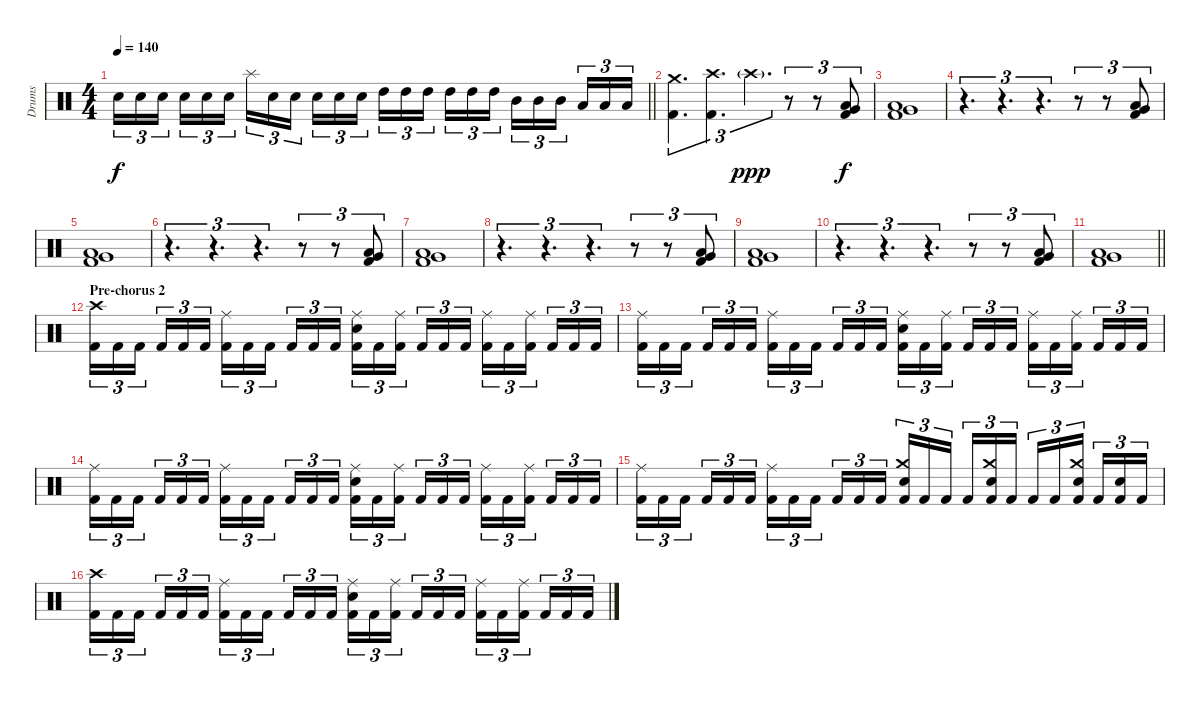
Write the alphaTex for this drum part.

\track ("Drums" "Drums") {instrument percussion}
\staff {score}
\articulation defaults
\ts (4 4)
\tempo 140
\clef neutral
\barLineRight lightlight
\ks c "Electric Snare (hit)".16{tu (3 2) dy f} "Electric Snare (hit)".16{tu (3 2)} "Electric Snare (hit)".16{tu (3 2) beam splitsecondary} "Electric Snare (hit)".16{tu (3 2)} "Electric Snare (hit)".16{tu (3 2)} "Electric Snare (hit)".16{tu (3 2)} "Splash (hit)".16{tu (3 2)} "Electric Snare (hit)".16{tu (3 2)} "Electric Snare (hit)".16{tu (3 2) beam splitsecondary} "Electric Snare (hit)".16{tu (3 2)} "Electric Snare (hit)".16{tu (3 2)} "Electric Snare (hit)".16{tu (3 2)} "High Tom (hit)".16{tu (3 2)} "High Tom (hit)".16{tu (3 2)} "High Tom (hit)".16{tu (3 2) beam splitsecondary} "High Tom (hit)".16{tu (3 2)} "High Tom (hit)".16{tu (3 2)} "High Tom (hit)".16{tu (3 2)} "Mid Tom (hit)".16{tu (3 2)} "Mid Tom (hit)".16{tu (3 2)} "Mid Tom (hit)".16{tu (3 2) beam splitsecondary} "Low Tom (hit)".16{tu (3 2)} "Low Tom (hit)".16{tu (3 2)} "Low Tom (hit)".16{tu (3 2)}
|
("Crash medium (hit)" "Kick (hit) 2").4{d tu (3 2)} ("Crash high (hit)" "Kick (hit) 2").4{d tu (3 2)} "Crash high (hit)"{g}.4{d tu (3 2) dy ppp} r.8{tu (3 2)} r.8{tu (3 2)} ("Low Floor Tom (hit)" "Very Low Tom (hit)" "Kick (hit) 2").8{tu (3 2) dy f} |
("Low Floor Tom (hit)" "Very Low Tom (hit)" "Kick (hit) 2").1 |
r.4{d tu (3 2)} r.4{d tu (3 2)} r.4{d tu (3 2)} r.8{tu (3 2)} r.8{tu (3 2)} ("Low Floor Tom (hit)" "Very Low Tom (hit)" "Kick (hit) 2").8{tu (3 2)} |
("Low Floor Tom (hit)" "Very Low Tom (hit)" "Kick (hit) 2").1 |
r.4{d tu (3 2)} r.4{d tu (3 2)} r.4{d tu (3 2)} r.8{tu (3 2)} r.8{tu (3 2)} ("Low Floor Tom (hit)" "Very Low Tom (hit)" "Kick (hit) 2").8{tu (3 2)} |
("Low Floor Tom (hit)" "Very Low Tom (hit)" "Kick (hit) 2").1 |
r.4{d tu (3 2)} r.4{d tu (3 2)} r.4{d tu (3 2)} r.8{tu (3 2)} r.8{tu (3 2)} ("Low Floor Tom (hit)" "Very Low Tom (hit)" "Kick (hit) 2").8{tu (3 2)} |
("Low Floor Tom (hit)" "Very Low Tom (hit)" "Kick (hit) 2").1 |
r.4{d tu (3 2)} r.4{d tu (3 2)} r.4{d tu (3 2)} r.8{tu (3 2)} r.8{tu (3 2)} ("Low Floor Tom (hit)" "Very Low Tom (hit)" "Kick (hit) 2").8{tu (3 2)} |
\barLineRight lightlight
("Low Floor Tom (hit)" "Very Low Tom (hit)" "Kick (hit) 2").1 |
\section ("" "Pre-chorus 2")
("Crash high (hit)" "Kick (hit) 2").16{tu (3 2)} "Kick (hit) 2".16{tu (3 2)} "Kick (hit) 2".16{tu (3 2) beam splitsecondary} "Kick (hit) 2".16{tu (3 2)} "Kick (hit) 2".16{tu (3 2)} "Kick (hit) 2".16{tu (3 2)} ("Ride (middle)" "Kick (hit) 2").16{tu (3 2)} "Kick (hit) 2".16{tu (3 2)} "Kick (hit) 2".16{tu (3 2) beam splitsecondary} "Kick (hit) 2".16{tu (3 2)} "Kick (hit) 2".16{tu (3 2)} "Kick (hit) 2".16{tu (3 2)} ("Ride (middle)" "Electric Snare (hit)" "Kick (hit) 2").16{tu (3 2)} "Kick (hit) 2".16{tu (3 2)} ("Ride (middle)" "Kick (hit) 2").16{tu (3 2) beam splitsecondary} "Kick (hit) 2".16{tu (3 2)} "Kick (hit) 2".16{tu (3 2)} "Kick (hit) 2".16{tu (3 2)} ("Ride (middle)" "Kick (hit) 2").16{tu (3 2)} "Kick (hit) 2".16{tu (3 2)} ("Ride (middle)" "Kick (hit) 2").16{tu (3 2) beam splitsecondary} "Kick (hit) 2".16{tu (3 2)} "Kick (hit) 2".16{tu (3 2)} "Kick (hit) 2".16{tu (3 2)} |
("Ride (middle)" "Kick (hit) 2").16{tu (3 2)} "Kick (hit) 2".16{tu (3 2)} "Kick (hit) 2".16{tu (3 2) beam splitsecondary} "Kick (hit) 2".16{tu (3 2)} "Kick (hit) 2".16{tu (3 2)} "Kick (hit) 2".16{tu (3 2)} ("Ride (middle)" "Kick (hit) 2").16{tu (3 2)} "Kick (hit) 2".16{tu (3 2)} "Kick (hit) 2".16{tu (3 2) beam splitsecondary} "Kick (hit) 2".16{tu (3 2)} "Kick (hit) 2".16{tu (3 2)} "Kick (hit) 2".16{tu (3 2)} ("Ride (middle)" "Electric Snare (hit)" "Kick (hit) 2").16{tu (3 2)} "Kick (hit) 2".16{tu (3 2)} ("Ride (middle)" "Kick (hit) 2").16{tu (3 2) beam splitsecondary} "Kick (hit) 2".16{tu (3 2)} "Kick (hit) 2".16{tu (3 2)} "Kick (hit) 2".16{tu (3 2)} ("Ride (middle)" "Kick (hit) 2").16{tu (3 2)} "Kick (hit) 2".16{tu (3 2)} ("Ride (middle)" "Kick (hit) 2").16{tu (3 2) beam splitsecondary} "Kick (hit) 2".16{tu (3 2)} "Kick (hit) 2".16{tu (3 2)} "Kick (hit) 2".16{tu (3 2)} |
("Ride (middle)" "Kick (hit) 2").16{tu (3 2)} "Kick (hit) 2".16{tu (3 2)} "Kick (hit) 2".16{tu (3 2) beam splitsecondary} "Kick (hit) 2".16{tu (3 2)} "Kick (hit) 2".16{tu (3 2)} "Kick (hit) 2".16{tu (3 2)} ("Ride (middle)" "Kick (hit) 2").16{tu (3 2)} "Kick (hit) 2".16{tu (3 2)} "Kick (hit) 2".16{tu (3 2) beam splitsecondary} "Kick (hit) 2".16{tu (3 2)} "Kick (hit) 2".16{tu (3 2)} "Kick (hit) 2".16{tu (3 2)} ("Ride (middle)" "Electric Snare (hit)" "Kick (hit) 2").16{tu (3 2)} "Kick (hit) 2".16{tu (3 2)} ("Ride (middle)" "Kick (hit) 2").16{tu (3 2) beam splitsecondary} "Kick (hit) 2".16{tu (3 2)} "Kick (hit) 2".16{tu (3 2)} "Kick (hit) 2".16{tu (3 2)} ("Ride (middle)" "Kick (hit) 2").16{tu (3 2)} "Kick (hit) 2".16{tu (3 2)} ("Ride (middle)" "Kick (hit) 2").16{tu (3 2) beam splitsecondary} "Kick (hit) 2".16{tu (3 2)} "Kick (hit) 2".16{tu (3 2)} "Kick (hit) 2".16{tu (3 2)} |
("Ride (middle)" "Kick (hit) 2").16{tu (3 2)} "Kick (hit) 2".16{tu (3 2)} "Kick (hit) 2".16{tu (3 2) beam splitsecondary} "Kick (hit) 2".16{tu (3 2)} "Kick (hit) 2".16{tu (3 2)} "Kick (hit) 2".16{tu (3 2)} ("Ride (middle)" "Kick (hit) 2").16{tu (3 2)} "Kick (hit) 2".16{tu (3 2)} "Kick (hit) 2".16{tu (3 2) beam splitsecondary} "Kick (hit) 2".16{tu (3 2)} "Kick (hit) 2".16{tu (3 2)} "Kick (hit) 2".16{tu (3 2)} ("Crash medium (hit)" "Electric Snare (hit)" "Kick (hit) 2").16{tu (3 2)} "Kick (hit) 2".16{tu (3 2)} "Kick (hit) 2".16{tu (3 2) beam splitsecondary} "Kick (hit) 2".16{tu (3 2)} ("Crash medium (hit)" "Electric Snare (hit)" "Kick (hit) 2").16{tu (3 2)} "Kick (hit) 2".16{tu (3 2)} "Kick (hit) 2".16{tu (3 2)} "Kick (hit) 2".16{tu (3 2)} ("Crash medium (hit)" "Electric Snare (hit)" "Kick (hit) 2").16{tu (3 2) beam splitsecondary} "Kick (hit) 2".16{tu (3 2)} ("Electric Snare (hit)" "Kick (hit) 2").16{tu (3 2)} "Kick (hit) 2".16{tu (3 2)} |
("Crash high (hit)" "Kick (hit) 2").16{tu (3 2)} "Kick (hit) 2".16{tu (3 2)} "Kick (hit) 2".16{tu (3 2) beam splitsecondary} "Kick (hit) 2".16{tu (3 2)} "Kick (hit) 2".16{tu (3 2)} "Kick (hit) 2".16{tu (3 2)} ("Ride (middle)" "Kick (hit) 2").16{tu (3 2)} "Kick (hit) 2".16{tu (3 2)} "Kick (hit) 2".16{tu (3 2) beam splitsecondary} "Kick (hit) 2".16{tu (3 2)} "Kick (hit) 2".16{tu (3 2)} "Kick (hit) 2".16{tu (3 2)} ("Ride (middle)" "Electric Snare (hit)" "Kick (hit) 2").16{tu (3 2)} "Kick (hit) 2".16{tu (3 2)} ("Ride (middle)" "Kick (hit) 2").16{tu (3 2) beam splitsecondary} "Kick (hit) 2".16{tu (3 2)} "Kick (hit) 2".16{tu (3 2)} "Kick (hit) 2".16{tu (3 2)} ("Ride (middle)" "Kick (hit) 2").16{tu (3 2)} "Kick (hit) 2".16{tu (3 2)} ("Ride (middle)" "Kick (hit) 2").16{tu (3 2) beam splitsecondary} "Kick (hit) 2".16{tu (3 2)} "Kick (hit) 2".16{tu (3 2)} "Kick (hit) 2".16{tu (3 2)}
